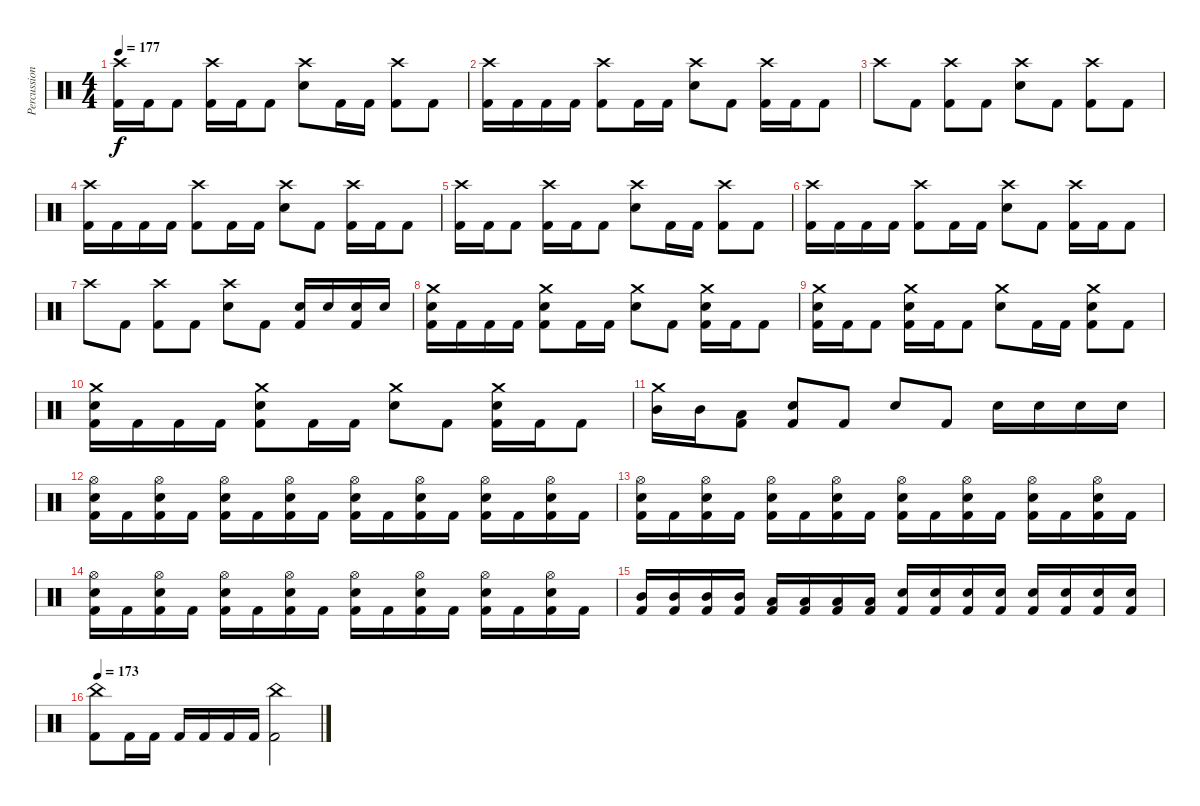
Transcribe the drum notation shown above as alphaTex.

\track ("Percussion" "Percussion") {instrument percussion}
\staff {score}
\articulation defaults
\ts (4 4)
\tempo 177
\clef neutral
\ks c
("Crash high (hit)" "Kick (hit) 2").16{dy f} "Kick (hit) 2".16 "Kick (hit) 2".8 ("Crash high (hit)" "Kick (hit) 2").16 "Kick (hit) 2".16 "Kick (hit) 2".8 ("Crash high (hit)" "Snare (hit) 2").8 "Kick (hit) 2".16 "Kick (hit) 2".16 ("Crash high (hit)" "Kick (hit) 2").8 "Kick (hit) 2".8 |
("Crash high (hit)" "Kick (hit) 2").16 "Kick (hit) 2".16 "Kick (hit) 2".16 "Kick (hit) 2".16 ("Crash high (hit)" "Kick (hit) 2").8 "Kick (hit) 2".16 "Kick (hit) 2".16 ("Crash high (hit)" "Snare (hit) 2").8 "Kick (hit) 2".8 ("Crash high (hit)" "Kick (hit) 2").16 "Kick (hit) 2".16 "Kick (hit) 2".8 |
"Crash high (hit)".8 "Kick (hit) 2".8 ("Crash high (hit)" "Kick (hit) 2").8 "Kick (hit) 2".8 ("Crash high (hit)" "Snare (hit) 2").8 "Kick (hit) 2".8 ("Crash high (hit)" "Kick (hit) 2").8 "Kick (hit) 2".8 |
("Crash high (hit)" "Kick (hit) 2").16 "Kick (hit) 2".16 "Kick (hit) 2".16 "Kick (hit) 2".16 ("Crash high (hit)" "Kick (hit) 2").8 "Kick (hit) 2".16 "Kick (hit) 2".16 ("Crash high (hit)" "Snare (hit) 2").8 "Kick (hit) 2".8 ("Crash high (hit)" "Kick (hit) 2").16 "Kick (hit) 2".16 "Kick (hit) 2".8 |
("Crash high (hit)" "Kick (hit) 2").16 "Kick (hit) 2".16 "Kick (hit) 2".8 ("Crash high (hit)" "Kick (hit) 2").16 "Kick (hit) 2".16 "Kick (hit) 2".8 ("Crash high (hit)" "Snare (hit) 2").8 "Kick (hit) 2".16 "Kick (hit) 2".16 ("Crash high (hit)" "Kick (hit) 2").8 "Kick (hit) 2".8 |
("Crash high (hit)" "Kick (hit) 2").16 "Kick (hit) 2".16 "Kick (hit) 2".16 "Kick (hit) 2".16 ("Crash high (hit)" "Kick (hit) 2").8 "Kick (hit) 2".16 "Kick (hit) 2".16 ("Crash high (hit)" "Snare (hit) 2").8 "Kick (hit) 2".8 ("Crash high (hit)" "Kick (hit) 2").16 "Kick (hit) 2".16 "Kick (hit) 2".8 |
"Crash high (hit)".8 "Kick (hit) 2".8 ("Crash high (hit)" "Kick (hit) 2").8 "Kick (hit) 2".8 ("Crash high (hit)" "Snare (hit) 2").8 "Kick (hit) 2".8 ("Snare (hit) 2" "Kick (hit) 2").16 "Snare (hit) 2".16 ("Snare (hit) 2" "Kick (hit) 2").16 "Snare (hit) 2".16 |
("Crash medium (hit)" "Snare (hit) 2" "Kick (hit) 2").16 "Kick (hit) 2".16 "Kick (hit) 2".16 "Kick (hit) 2".16 ("Crash medium (hit)" "Snare (hit) 2" "Kick (hit) 2").8 "Kick (hit) 2".16 "Kick (hit) 2".16 ("Crash medium (hit)" "Snare (hit) 2").8 "Kick (hit) 2".8 ("Crash medium (hit)" "Snare (hit) 2" "Kick (hit) 2").16 "Kick (hit) 2".16 "Kick (hit) 2".8 |
("Crash medium (hit)" "Snare (hit) 2" "Kick (hit) 2").16 "Kick (hit) 2".16 "Kick (hit) 2".8 ("Crash medium (hit)" "Snare (hit) 2" "Kick (hit) 2").16 "Kick (hit) 2".16 "Kick (hit) 2".8 ("Crash medium (hit)" "Snare (hit) 2").8 "Kick (hit) 2".16 "Kick (hit) 2".16 ("Crash medium (hit)" "Snare (hit) 2" "Kick (hit) 2").8 "Kick (hit) 2".8 |
("Crash medium (hit)" "Snare (hit) 2" "Kick (hit) 2").16 "Kick (hit) 2".16 "Kick (hit) 2".16 "Kick (hit) 2".16 ("Crash medium (hit)" "Snare (hit) 2" "Kick (hit) 2").8 "Kick (hit) 2".16 "Kick (hit) 2".16 ("Crash medium (hit)" "Snare (hit) 2").8 "Kick (hit) 2".8 ("Crash medium (hit)" "Snare (hit) 2" "Kick (hit) 2").16 "Kick (hit) 2".16 "Kick (hit) 2".8 |
("Crash medium (hit)" "Mid Tom (hit)").16 "Mid Tom (hit)".16 ("Low Tom (hit)" "Kick (hit) 2").8 ("Snare (hit) 2" "Kick (hit) 2").8 "Kick (hit) 2".8 "Snare (hit) 2".8 "Kick (hit) 2".8 "Snare (hit) 2".16 "Snare (hit) 2".16 "Snare (hit) 2".16 "Snare (hit) 2".16 |
("Hi-Hat (open)" "Snare (hit) 2" "Kick (hit) 2").16 "Kick (hit) 2".16 ("Hi-Hat (open)" "Snare (hit) 2" "Kick (hit) 2").16 "Kick (hit) 2".16 ("Hi-Hat (open)" "Snare (hit) 2" "Kick (hit) 2").16 "Kick (hit) 2".16 ("Hi-Hat (open)" "Snare (hit) 2" "Kick (hit) 2").16 "Kick (hit) 2".16 ("Hi-Hat (open)" "Snare (hit) 2" "Kick (hit) 2").16 "Kick (hit) 2".16 ("Hi-Hat (open)" "Snare (hit) 2" "Kick (hit) 2").16 "Kick (hit) 2".16 ("Hi-Hat (open)" "Snare (hit) 2" "Kick (hit) 2").16 "Kick (hit) 2".16 ("Hi-Hat (open)" "Snare (hit) 2" "Kick (hit) 2").16 "Kick (hit) 2".16 |
("Hi-Hat (open)" "Snare (hit) 2" "Kick (hit) 2").16 "Kick (hit) 2".16 ("Hi-Hat (open)" "Snare (hit) 2" "Kick (hit) 2").16 "Kick (hit) 2".16 ("Hi-Hat (open)" "Snare (hit) 2" "Kick (hit) 2").16 "Kick (hit) 2".16 ("Hi-Hat (open)" "Snare (hit) 2" "Kick (hit) 2").16 "Kick (hit) 2".16 ("Hi-Hat (open)" "Snare (hit) 2" "Kick (hit) 2").16 "Kick (hit) 2".16 ("Hi-Hat (open)" "Snare (hit) 2" "Kick (hit) 2").16 "Kick (hit) 2".16 ("Hi-Hat (open)" "Snare (hit) 2" "Kick (hit) 2").16 "Kick (hit) 2".16 ("Hi-Hat (open)" "Snare (hit) 2" "Kick (hit) 2").16 "Kick (hit) 2".16 |
("Hi-Hat (open)" "Snare (hit) 2" "Kick (hit) 2").16 "Kick (hit) 2".16 ("Hi-Hat (open)" "Snare (hit) 2" "Kick (hit) 2").16 "Kick (hit) 2".16 ("Hi-Hat (open)" "Snare (hit) 2" "Kick (hit) 2").16 "Kick (hit) 2".16 ("Hi-Hat (open)" "Snare (hit) 2" "Kick (hit) 2").16 "Kick (hit) 2".16 ("Hi-Hat (open)" "Snare (hit) 2" "Kick (hit) 2").16 "Kick (hit) 2".16 ("Hi-Hat (open)" "Snare (hit) 2" "Kick (hit) 2").16 "Kick (hit) 2".16 ("Hi-Hat (open)" "Snare (hit) 2" "Kick (hit) 2").16 "Kick (hit) 2".16 ("Hi-Hat (open)" "Snare (hit) 2" "Kick (hit) 2").16 "Kick (hit) 2".16 |
("Mid Tom (hit)" "Kick (hit) 2").16 ("Mid Tom (hit)" "Kick (hit) 2").16 ("Mid Tom (hit)" "Kick (hit) 2").16 ("Mid Tom (hit)" "Kick (hit) 2").16 ("Low Tom (hit)" "Kick (hit) 2").16 ("Low Tom (hit)" "Kick (hit) 2").16 ("Low Tom (hit)" "Kick (hit) 2").16 ("Low Tom (hit)" "Kick (hit) 2").16 ("Snare (hit) 2" "Kick (hit) 2").16 ("Snare (hit) 2" "Kick (hit) 2").16 ("Snare (hit) 2" "Kick (hit) 2").16 ("Snare (hit) 2" "Kick (hit) 2").16 ("Snare (hit) 2" "Kick (hit) 2").16 ("Snare (hit) 2" "Kick (hit) 2").16 ("Snare (hit) 2" "Kick (hit) 2").16 ("Snare (hit) 2" "Kick (hit) 2").16 |
\tempo 173
("China (hit)" "Kick (hit) 2").8 "Kick (hit) 2".16 "Kick (hit) 2".16 "Kick (hit) 2".16 "Kick (hit) 2".16 "Kick (hit) 2".16 "Kick (hit) 2".16 ("China (hit)" "Kick (hit) 2").2
